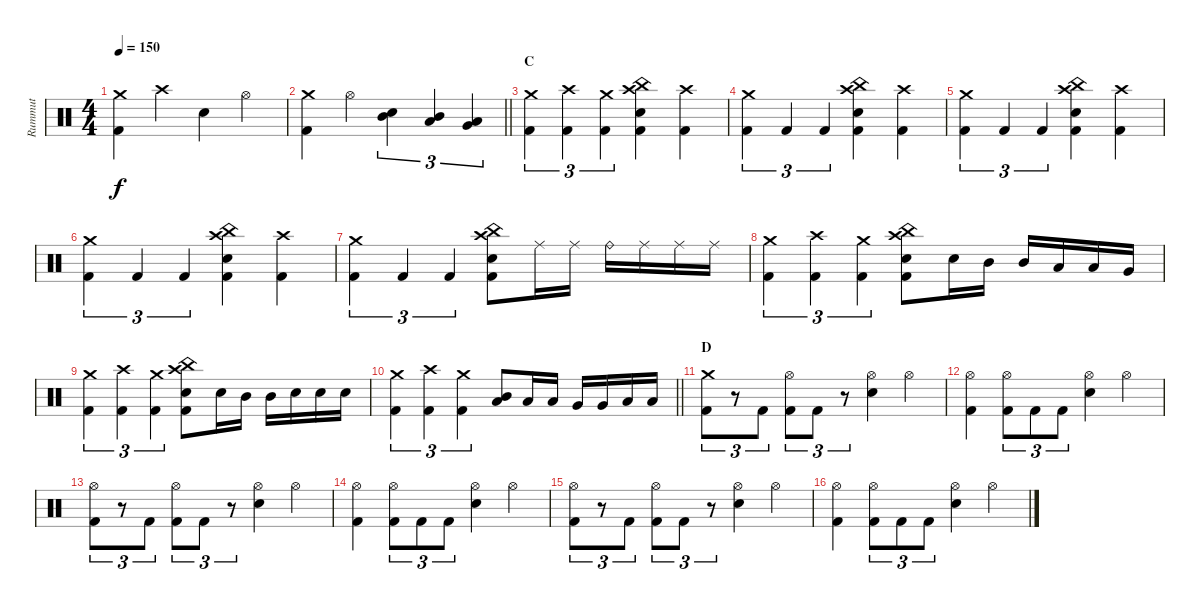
\track ("Rummut" "Rummut") {mute instrument percussion}
\staff {score}
\articulation defaults
\ts (4 4)
\tempo 150
\clef neutral
\ks c
("Crash medium (hit)" "Kick (hit) 2").4{dy f} "Crash high (hit)".4 "Electric Snare (hit)".4 "Hi-Hat (open)".4 |
\barLineRight lightlight
("Crash medium (hit)" "Kick (hit) 2").4 "Hi-Hat (open)".4 ("Mid Tom (hit)" "Electric Snare (hit)").4{tu (3 2)} ("Low Tom (hit)" "Mid Tom (hit)").4{tu (3 2)} ("Very Low Tom (hit)" "Low Tom (hit)").4{tu (3 2)} |
\section ("" "C")
("Crash medium (hit)" "Kick (hit) 2").4{tu (3 2)} ("Crash high (hit)" "Kick (hit) 2").4{tu (3 2)} ("Crash medium (hit)" "Kick (hit) 2").4{tu (3 2)} ("China (hit)" "Crash high (hit)" "Electric Snare (hit)" "Kick (hit) 2").4 ("Crash high (hit)" "Kick (hit) 2").4 |
("Crash medium (hit)" "Kick (hit) 2").4{tu (3 2)} "Kick (hit) 2".4{tu (3 2)} "Kick (hit) 2".4{tu (3 2)} ("China (hit)" "Crash high (hit)" "Electric Snare (hit)" "Kick (hit) 2").4 ("Crash high (hit)" "Kick (hit) 2").4 |
("Crash medium (hit)" "Kick (hit) 2").4{tu (3 2)} "Kick (hit) 2".4{tu (3 2)} "Kick (hit) 2".4{tu (3 2)} ("China (hit)" "Crash high (hit)" "Electric Snare (hit)" "Kick (hit) 2").4 ("Crash high (hit)" "Kick (hit) 2").4 |
("Crash medium (hit)" "Kick (hit) 2").4{tu (3 2)} "Kick (hit) 2".4{tu (3 2)} "Kick (hit) 2".4{tu (3 2)} ("China (hit)" "Crash high (hit)" "Electric Snare (hit)" "Kick (hit) 2").4 ("Crash high (hit)" "Kick (hit) 2").4 |
("Crash medium (hit)" "Kick (hit) 2").4{tu (3 2)} "Kick (hit) 2".4{tu (3 2)} "Kick (hit) 2".4{tu (3 2)} ("China (hit)" "Crash high (hit)" "Electric Snare (hit)" "Kick (hit) 2").8 "Ride (middle)".16 "Ride (middle)".16 "Ride (bell)".16 "Ride (middle)".16 "Ride (middle)".16 "Ride (middle)".16 |
("Crash medium (hit)" "Kick (hit) 2").4{tu (3 2)} ("Crash high (hit)" "Kick (hit) 2").4{tu (3 2)} ("Crash medium (hit)" "Kick (hit) 2").4{tu (3 2)} ("China (hit)" "Crash high (hit)" "Electric Snare (hit)" "Kick (hit) 2").8 "Electric Snare (hit)".16 "Mid Tom (hit)".16 "Mid Tom (hit)".16 "Low Tom (hit)".16 "Low Tom (hit)".16 "Very Low Tom (hit)".16 |
("Crash medium (hit)" "Kick (hit) 2").4{tu (3 2)} ("Crash high (hit)" "Kick (hit) 2").4{tu (3 2)} ("Crash medium (hit)" "Kick (hit) 2").4{tu (3 2)} ("China (hit)" "Crash high (hit)" "Electric Snare (hit)" "Kick (hit) 2").8 "Electric Snare (hit)".16 "Mid Tom (hit)".16 "Mid Tom (hit)".16 "Electric Snare (hit)".16 "Electric Snare (hit)".16 "Electric Snare (hit)".16 |
\barLineRight lightlight
("Crash medium (hit)" "Kick (hit) 2").4{tu (3 2)} ("Crash high (hit)" "Kick (hit) 2").4{tu (3 2)} ("Crash medium (hit)" "Kick (hit) 2").4{tu (3 2)} ("Mid Tom (hit)" "Low Tom (hit)").8 "Low Tom (hit)".16 "Low Tom (hit)".16 "Very Low Tom (hit)".16 "Very Low Tom (hit)".16 "Low Floor Tom (hit)".16 "Low Floor Tom (hit)".16 |
\section ("" "D")
("Crash medium (hit)" "Kick (hit) 2").8{tu (3 2)} r.8{tu (3 2)} "Kick (hit) 2".8{tu (3 2)} ("Hi-Hat (open)" "Kick (hit) 2").8{tu (3 2)} "Kick (hit) 2".8{tu (3 2)} r.8{tu (3 2)} ("Hi-Hat (open)" "Electric Snare (hit)").4 "Hi-Hat (open)".4 |
("Hi-Hat (open)" "Kick (hit) 2").4 ("Hi-Hat (open)" "Kick (hit) 2").8{tu (3 2)} "Kick (hit) 2".8{tu (3 2)} "Kick (hit) 2".8{tu (3 2)} ("Hi-Hat (open)" "Electric Snare (hit)").4 "Hi-Hat (open)".4 |
("Hi-Hat (open)" "Kick (hit) 2").8{tu (3 2)} r.8{tu (3 2)} "Kick (hit) 2".8{tu (3 2)} ("Hi-Hat (open)" "Kick (hit) 2").8{tu (3 2)} "Kick (hit) 2".8{tu (3 2)} r.8{tu (3 2)} ("Hi-Hat (open)" "Electric Snare (hit)").4 "Hi-Hat (open)".4 |
("Hi-Hat (open)" "Kick (hit) 2").4 ("Hi-Hat (open)" "Kick (hit) 2").8{tu (3 2)} "Kick (hit) 2".8{tu (3 2)} "Kick (hit) 2".8{tu (3 2)} ("Hi-Hat (open)" "Electric Snare (hit)").4 "Hi-Hat (open)".4 |
("Hi-Hat (open)" "Kick (hit) 2").8{tu (3 2)} r.8{tu (3 2)} "Kick (hit) 2".8{tu (3 2)} ("Hi-Hat (open)" "Kick (hit) 2").8{tu (3 2)} "Kick (hit) 2".8{tu (3 2)} r.8{tu (3 2)} ("Hi-Hat (open)" "Electric Snare (hit)").4 "Hi-Hat (open)".4 |
("Hi-Hat (open)" "Kick (hit) 2").4 ("Hi-Hat (open)" "Kick (hit) 2").8{tu (3 2)} "Kick (hit) 2".8{tu (3 2)} "Kick (hit) 2".8{tu (3 2)} ("Hi-Hat (open)" "Electric Snare (hit)").4 "Hi-Hat (open)".4
